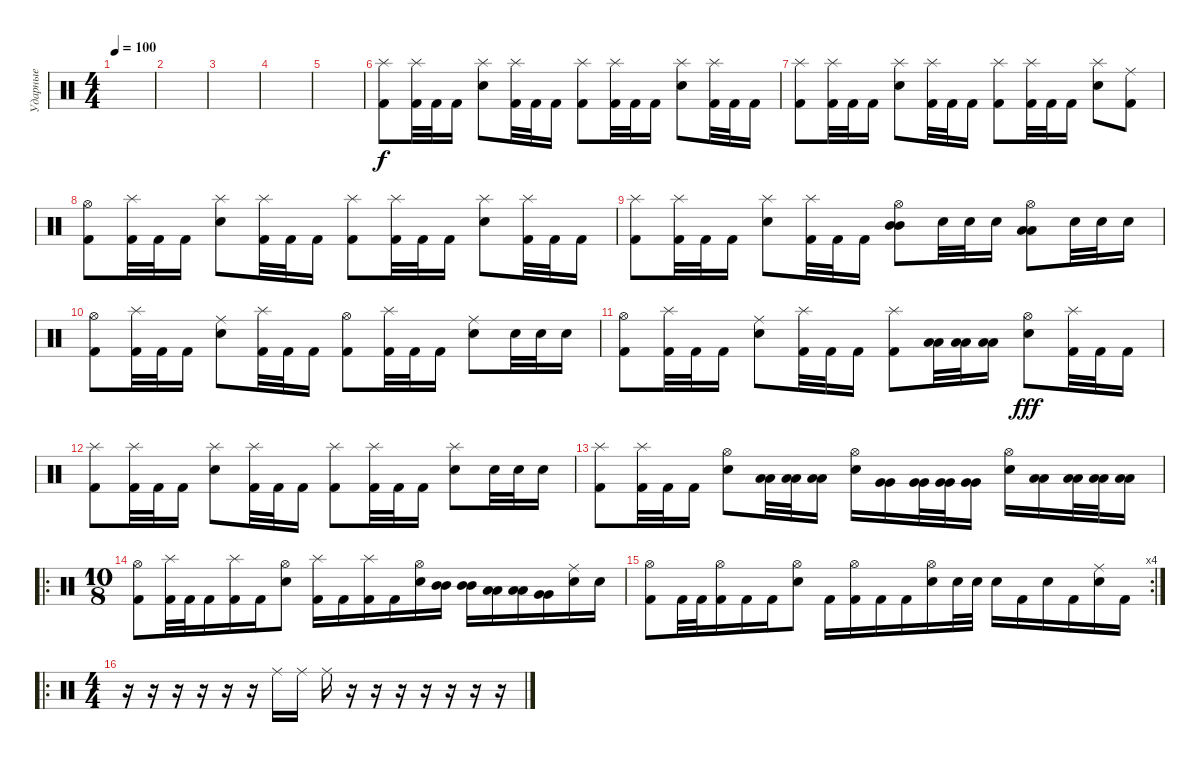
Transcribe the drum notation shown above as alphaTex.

\track ("Ударные" "Ударные") {instrument percussion}
\staff {score}
\articulation defaults
\ts (4 4)
\tempo 100
\clef neutral
\ks c
|
|
|
|
|
("Splash (hit)" "Kick (hit) 2").8 ("Splash (hit)" "Kick (hit) 2").32 "Kick (hit) 2".32 "Kick (hit) 2".16 ("Splash (hit)" "Electric Snare (hit)").8 ("Splash (hit)" "Kick (hit) 2").32 "Kick (hit) 2".32 "Kick (hit) 2".16 ("Splash (hit)" "Kick (hit) 2").8 ("Splash (hit)" "Kick (hit) 2").32 "Kick (hit) 2".32 "Kick (hit) 2".16 ("Splash (hit)" "Electric Snare (hit)").8 ("Splash (hit)" "Kick (hit) 2").32 "Kick (hit) 2".32 "Kick (hit) 2".16 |
("Splash (hit)" "Kick (hit) 2").8 ("Splash (hit)" "Kick (hit) 2").32 "Kick (hit) 2".32 "Kick (hit) 2".16 ("Splash (hit)" "Electric Snare (hit)").8 ("Splash (hit)" "Kick (hit) 2").32 "Kick (hit) 2".32 "Kick (hit) 2".16 ("Splash (hit)" "Kick (hit) 2").8 ("Splash (hit)" "Kick (hit) 2").32 "Kick (hit) 2".32 "Kick (hit) 2".16 ("Splash (hit)" "Electric Snare (hit)").8 ("Ride (middle)" "Kick (hit) 2").8 |
("Hi-Hat (open)" "Kick (hit) 2").8 ("Splash (hit)" "Kick (hit) 2").32 "Kick (hit) 2".32 "Kick (hit) 2".16 ("Splash (hit)" "Electric Snare (hit)").8 ("Splash (hit)" "Kick (hit) 2").32 "Kick (hit) 2".32 "Kick (hit) 2".16 ("Splash (hit)" "Kick (hit) 2").8 ("Splash (hit)" "Kick (hit) 2").32 "Kick (hit) 2".32 "Kick (hit) 2".16 ("Splash (hit)" "Electric Snare (hit)").8 ("Splash (hit)" "Kick (hit) 2").32 "Kick (hit) 2".32 "Kick (hit) 2".16 |
("Splash (hit)" "Kick (hit) 2").8 ("Splash (hit)" "Kick (hit) 2").32 "Kick (hit) 2".32 "Kick (hit) 2".16 ("Splash (hit)" "Electric Snare (hit)").8 ("Splash (hit)" "Kick (hit) 2").32 "Kick (hit) 2".32 "Kick (hit) 2".16 ("Hi-Hat (open)" "Mid Tom (hit)" "Mid Tom (hit)").8 "Electric Snare (hit)".32 "Electric Snare (hit)".32 "Electric Snare (hit)".16 ("Hi-Hat (open)" "Low Tom (hit)" "Low Tom (hit)").8 "Electric Snare (hit)".32 "Electric Snare (hit)".32 "Electric Snare (hit)".16 |
("Hi-Hat (open)" "Kick (hit) 2").8 ("Splash (hit)" "Kick (hit) 2").32 "Kick (hit) 2".32 "Kick (hit) 2".16 ("Ride (middle)" "Electric Snare (hit)").8 ("Splash (hit)" "Kick (hit) 2").32 "Kick (hit) 2".32 "Kick (hit) 2".16 ("Hi-Hat (open)" "Kick (hit) 2").8 ("Splash (hit)" "Kick (hit) 2").32 "Kick (hit) 2".32 "Kick (hit) 2".16 ("Ride (middle)" "Electric Snare (hit)").8 "Electric Snare (hit)".32 "Electric Snare (hit)".32 "Electric Snare (hit)".16 |
("Hi-Hat (open)" "Kick (hit) 2").8 ("Splash (hit)" "Kick (hit) 2").32 "Kick (hit) 2".32 "Kick (hit) 2".16 ("Ride (middle)" "Electric Snare (hit)").8 ("Splash (hit)" "Kick (hit) 2").32 "Kick (hit) 2".32 "Kick (hit) 2".16 ("Splash (hit)" "Kick (hit) 2").8 ("Low Floor Tom (hit)" "Low Floor Tom (hit)").32{dy f} ("Low Floor Tom (hit)" "Low Floor Tom (hit)").32 ("Low Floor Tom (hit)" "Low Floor Tom (hit)").16 ("Hi-Hat (open)" "Electric Snare (hit)").8{dy fff} ("Splash (hit)" "Kick (hit) 2").32 "Kick (hit) 2".32 "Kick (hit) 2".16 |
("Splash (hit)" "Kick (hit) 2").8 ("Splash (hit)" "Kick (hit) 2").32 "Kick (hit) 2".32 "Kick (hit) 2".16 ("Splash (hit)" "Electric Snare (hit)").8 ("Splash (hit)" "Kick (hit) 2").32 "Kick (hit) 2".32 "Kick (hit) 2".16 ("Splash (hit)" "Kick (hit) 2").8 ("Splash (hit)" "Kick (hit) 2").32 "Kick (hit) 2".32 "Kick (hit) 2".16 ("Splash (hit)" "Electric Snare (hit)").8 "Electric Snare (hit)".32 "Electric Snare (hit)".32 "Electric Snare (hit)".16 |
("Splash (hit)" "Kick (hit) 2").8 ("Splash (hit)" "Kick (hit) 2").32 "Kick (hit) 2".32 "Kick (hit) 2".16 ("Hi-Hat (open)" "Electric Snare (hit)").8 ("Low Tom (hit)" "Low Tom (hit)").32 ("Low Tom (hit)" "Low Tom (hit)").32 ("Low Tom (hit)" "Low Tom (hit)").16 ("Hi-Hat (open)" "Electric Snare (hit)").16 ("Very Low Tom (hit)" "Very Low Tom (hit)").16 ("Very Low Tom (hit)" "Very Low Tom (hit)").32 ("Very Low Tom (hit)" "Very Low Tom (hit)").32 ("Very Low Tom (hit)" "Very Low Tom (hit)").16 ("Hi-Hat (open)" "Electric Snare (hit)").16 ("Low Floor Tom (hit)" "Low Floor Tom (hit)").16 ("Low Floor Tom (hit)" "Low Floor Tom (hit)").32 ("Low Floor Tom (hit)" "Low Floor Tom (hit)").32 ("Low Floor Tom (hit)" "Low Floor Tom (hit)").16 |
\ro
\ts (10 8)
("Hi-Hat (open)" "Kick (hit) 2").8 ("Splash (hit)" "Kick (hit) 2").32 "Kick (hit) 2".32 "Kick (hit) 2".16 ("Splash (hit)" "Kick (hit) 2").16 "Kick (hit) 2".16 ("Hi-Hat (open)" "Electric Snare (hit)").8 ("Splash (hit)" "Kick (hit) 2").16 "Kick (hit) 2".16 ("Splash (hit)" "Kick (hit) 2").16 "Kick (hit) 2".16 ("Hi-Hat (open)" "Electric Snare (hit)").16 ("Mid Tom (hit)" "Mid Tom (hit)").16 ("Mid Tom (hit)" "Mid Tom (hit)").16 ("Low Tom (hit)" "Low Tom (hit)").16 ("Low Tom (hit)" "Low Tom (hit)").16 ("Very Low Tom (hit)" "Very Low Tom (hit)").16 ("Ride (middle)" "Electric Snare (hit)").16 "Electric Snare (hit)".16 |
\rc 4
("Hi-Hat (open)" "Kick (hit) 2").8 "Kick (hit) 2".32 "Kick (hit) 2".32 ("Hi-Hat (open)" "Kick (hit) 2").16 "Kick (hit) 2".16 "Kick (hit) 2".16 ("Hi-Hat (open)" "Electric Snare (hit)").8 "Kick (hit) 2".16 ("Hi-Hat (open)" "Kick (hit) 2").16 "Kick (hit) 2".16 "Kick (hit) 2".16 ("Hi-Hat (open)" "Electric Snare (hit)").16 "Electric Snare (hit)".32 "Electric Snare (hit)".32 "Electric Snare (hit)".16 "Kick (hit) 2".16 "Electric Snare (hit)".16 "Kick (hit) 2".16 ("Ride (middle)" "Electric Snare (hit)").16 "Kick (hit) 2".16 |
\ro
\ts (4 4)
r.16 r.16 r.16 r.16 r.16 r.16 "Ride (middle)".16 "Ride (middle)".16 "Ride (middle)".16 r.16 r.16 r.16 r.16 r.16 r.16 r.16
